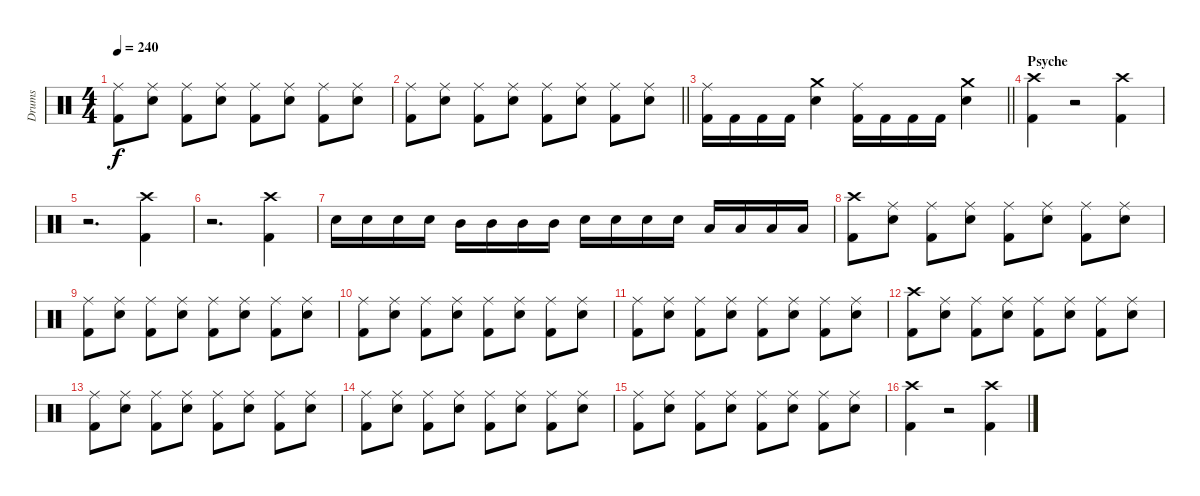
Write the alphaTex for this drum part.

\track ("Drums" "Drums") {instrument percussion}
\staff {score}
\articulation defaults
\ts (4 4)
\tempo 240
\clef neutral
\ks c
("Ride (middle)" "Kick (hit) 2").8{dy f} ("Ride (middle)" "Snare (hit) 2").8 ("Ride (middle)" "Kick (hit) 2").8 ("Ride (middle)" "Snare (hit) 2").8 ("Ride (middle)" "Kick (hit) 2").8 ("Ride (middle)" "Snare (hit) 2").8 ("Ride (middle)" "Kick (hit) 2").8 ("Ride (middle)" "Snare (hit) 2").8 |
\barLineRight lightlight
("Ride (middle)" "Kick (hit) 2").8 ("Ride (middle)" "Snare (hit) 2").8 ("Ride (middle)" "Kick (hit) 2").8 ("Ride (middle)" "Snare (hit) 2").8 ("Ride (middle)" "Kick (hit) 2").8 ("Ride (middle)" "Snare (hit) 2").8 ("Ride (middle)" "Kick (hit) 2").8 ("Ride (middle)" "Snare (hit) 2").8 |
\section ("" "")
\barLineRight lightlight
("Ride (middle)" "Kick (hit) 2").16 "Kick (hit) 2".16 "Kick (hit) 2".16 "Kick (hit) 2".16 ("Crash medium (hit)" "Snare (hit) 2").4 ("Ride (middle)" "Kick (hit) 2").16 "Kick (hit) 2".16 "Kick (hit) 2".16 "Kick (hit) 2".16 ("Crash medium (hit)" "Snare (hit) 2").4 |
\section ("" "Psyche")
("Crash high (hit)" "Kick (hit) 2").4 r.2 ("Crash high (hit)" "Kick (hit) 2").4 |
r.2{d} ("Crash high (hit)" "Kick (hit) 2").4 |
r.2{d} ("Crash high (hit)" "Kick (hit) 2").4 |
"Snare (hit) 2".16 "Snare (hit) 2".16 "Snare (hit) 2".16 "Snare (hit) 2".16 "Mid Tom (hit)".16 "Mid Tom (hit)".16 "Mid Tom (hit)".16 "Mid Tom (hit)".16 "Snare (hit) 2".16 "Snare (hit) 2".16 "Snare (hit) 2".16 "Snare (hit) 2".16 "Low Tom (hit)".16 "Low Tom (hit)".16 "Low Tom (hit)".16 "Low Tom (hit)".16 |
("Crash high (hit)" "Kick (hit) 2").8 ("Ride (middle)" "Snare (hit) 2").8 ("Ride (middle)" "Kick (hit) 2").8 ("Ride (middle)" "Snare (hit) 2").8 ("Ride (middle)" "Kick (hit) 2").8 ("Ride (middle)" "Snare (hit) 2").8 ("Ride (middle)" "Kick (hit) 2").8 ("Ride (middle)" "Snare (hit) 2").8 |
("Ride (middle)" "Kick (hit) 2").8 ("Ride (middle)" "Snare (hit) 2").8 ("Ride (middle)" "Kick (hit) 2").8 ("Ride (middle)" "Snare (hit) 2").8 ("Ride (middle)" "Kick (hit) 2").8 ("Ride (middle)" "Snare (hit) 2").8 ("Ride (middle)" "Kick (hit) 2").8 ("Ride (middle)" "Snare (hit) 2").8 |
("Ride (middle)" "Kick (hit) 2").8 ("Ride (middle)" "Snare (hit) 2").8 ("Ride (middle)" "Kick (hit) 2").8 ("Ride (middle)" "Snare (hit) 2").8 ("Ride (middle)" "Kick (hit) 2").8 ("Ride (middle)" "Snare (hit) 2").8 ("Ride (middle)" "Kick (hit) 2").8 ("Ride (middle)" "Snare (hit) 2").8 |
("Ride (middle)" "Kick (hit) 2").8 ("Ride (middle)" "Snare (hit) 2").8 ("Ride (middle)" "Kick (hit) 2").8 ("Ride (middle)" "Snare (hit) 2").8 ("Ride (middle)" "Kick (hit) 2").8 ("Ride (middle)" "Snare (hit) 2").8 ("Ride (middle)" "Kick (hit) 2").8 ("Ride (middle)" "Snare (hit) 2").8 |
("Crash high (hit)" "Kick (hit) 2").8 ("Ride (middle)" "Snare (hit) 2").8 ("Ride (middle)" "Kick (hit) 2").8 ("Ride (middle)" "Snare (hit) 2").8 ("Ride (middle)" "Kick (hit) 2").8 ("Ride (middle)" "Snare (hit) 2").8 ("Ride (middle)" "Kick (hit) 2").8 ("Ride (middle)" "Snare (hit) 2").8 |
("Ride (middle)" "Kick (hit) 2").8 ("Ride (middle)" "Snare (hit) 2").8 ("Ride (middle)" "Kick (hit) 2").8 ("Ride (middle)" "Snare (hit) 2").8 ("Ride (middle)" "Kick (hit) 2").8 ("Ride (middle)" "Snare (hit) 2").8 ("Ride (middle)" "Kick (hit) 2").8 ("Ride (middle)" "Snare (hit) 2").8 |
("Ride (middle)" "Kick (hit) 2").8 ("Ride (middle)" "Snare (hit) 2").8 ("Ride (middle)" "Kick (hit) 2").8 ("Ride (middle)" "Snare (hit) 2").8 ("Ride (middle)" "Kick (hit) 2").8 ("Ride (middle)" "Snare (hit) 2").8 ("Ride (middle)" "Kick (hit) 2").8 ("Ride (middle)" "Snare (hit) 2").8 |
("Ride (middle)" "Kick (hit) 2").8 ("Ride (middle)" "Snare (hit) 2").8 ("Ride (middle)" "Kick (hit) 2").8 ("Ride (middle)" "Snare (hit) 2").8 ("Ride (middle)" "Kick (hit) 2").8 ("Ride (middle)" "Snare (hit) 2").8 ("Ride (middle)" "Kick (hit) 2").8 ("Ride (middle)" "Snare (hit) 2").8 |
("Crash high (hit)" "Kick (hit) 2").4 r.2 ("Crash high (hit)" "Kick (hit) 2").4
